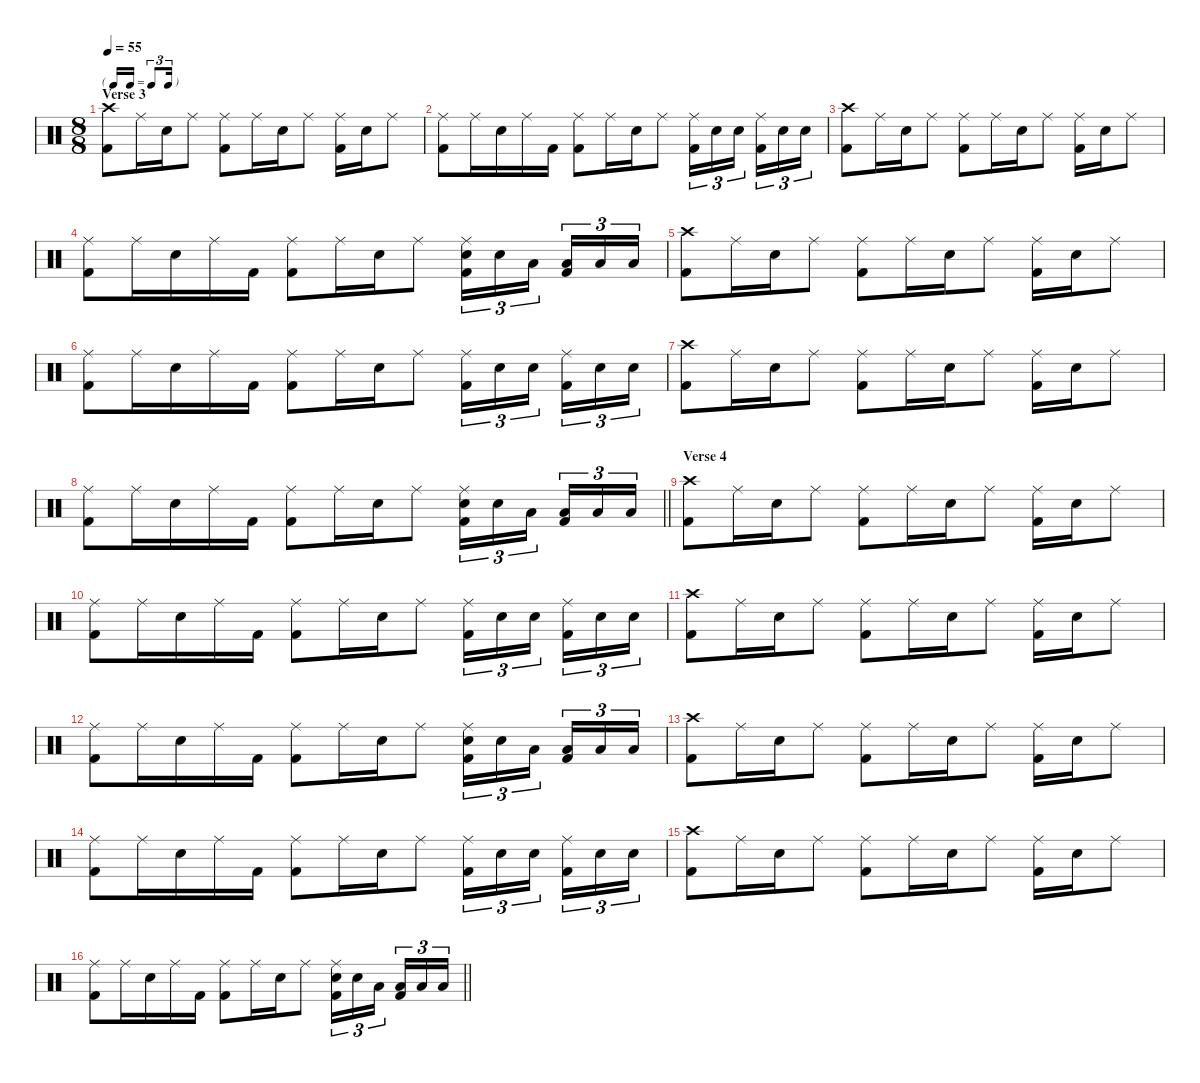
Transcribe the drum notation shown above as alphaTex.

\defaultSystemsLayout 4
\hideDynamics
\bracketExtendMode nobrackets
\singleTrackTrackNamePolicy hidden
\multiTrackTrackNamePolicy hidden
\otherSystemsTrackNameOrientation horizontal
\track ("Phil Selway(drums)" "drm.") {instrument percussion}
\staff {score}
\articulation defaults
\ts (8 8)
\tf triplet16th
\section ("" "Verse 3")
\tempo 55
\clef neutral
\ks c
("Crash high (hit)" "Kick (hit) 2").8{dy f beam Down} "Ride (middle)".16{beam Down} "Snare (hit) 2".16{beam Down} "Ride (middle)".8{beam Down} ("Ride (middle)" "Kick (hit) 2").8{beam Down} "Ride (middle)".16{beam Down} "Snare (hit) 2".16{beam Down} "Ride (middle)".8{beam Down} ("Ride (middle)" "Kick (hit) 2").16{beam Down} "Snare (hit) 2".16{beam Down} "Ride (middle)".8{beam Down} |
("Ride (middle)" "Kick (hit) 2").8{beam Down} "Ride (middle)".16{beam Down} "Snare (hit) 2".16{beam Down} "Ride (middle)".16{beam Down} "Kick (hit) 2".16{beam Down} ("Ride (middle)" "Kick (hit) 2").8{beam Down} "Ride (middle)".16{beam Down} "Snare (hit) 2".16{beam Down} "Ride (middle)".8{beam Down} ("Ride (middle)" "Kick (hit) 2").16{tu (3 2) beam Down} "Snare (hit) 2".16{tu (3 2) beam Down} "Snare (hit) 2".16{tu (3 2) beam Down} ("Ride (middle)" "Kick (hit) 2").16{tu (3 2) beam Down} "Snare (hit) 2".16{tu (3 2) beam Down} "Snare (hit) 2".16{tu (3 2) beam Down} |
("Crash high (hit)" "Kick (hit) 2").8{beam Down} "Ride (middle)".16{beam Down} "Snare (hit) 2".16{beam Down} "Ride (middle)".8{beam Down} ("Ride (middle)" "Kick (hit) 2").8{beam Down} "Ride (middle)".16{beam Down} "Snare (hit) 2".16{beam Down} "Ride (middle)".8{beam Down} ("Ride (middle)" "Kick (hit) 2").16{beam Down} "Snare (hit) 2".16{beam Down} "Ride (middle)".8{beam Down} |
("Ride (middle)" "Kick (hit) 2").8{beam Down} "Ride (middle)".16{beam Down} "Snare (hit) 2".16{beam Down} "Ride (middle)".16{beam Down} "Kick (hit) 2".16{beam Down} ("Ride (middle)" "Kick (hit) 2").8{beam Down} "Ride (middle)".16{beam Down} "Snare (hit) 2".16{beam Down} "Ride (middle)".8{beam Down} ("Ride (middle)" "Snare (hit) 2" "Kick (hit) 2").16{tu (3 2) beam Down} "Snare (hit) 2".16{tu (3 2) beam Down} "Low Tom (hit)".16{tu (3 2) beam Down} ("Low Tom (hit)" "Kick (hit) 2").16{tu (3 2) beam Up} "Low Floor Tom (hit)".16{tu (3 2) beam Up} "Low Floor Tom (hit)".16{tu (3 2) beam Up} |
("Crash high (hit)" "Kick (hit) 2").8{beam Down} "Ride (middle)".16{beam Down} "Snare (hit) 2".16{beam Down} "Ride (middle)".8{beam Down} ("Ride (middle)" "Kick (hit) 2").8{beam Down} "Ride (middle)".16{beam Down} "Snare (hit) 2".16{beam Down} "Ride (middle)".8{beam Down} ("Ride (middle)" "Kick (hit) 2").16{beam Down} "Snare (hit) 2".16{beam Down} "Ride (middle)".8{beam Down} |
("Ride (middle)" "Kick (hit) 2").8{beam Down} "Ride (middle)".16{beam Down} "Snare (hit) 2".16{beam Down} "Ride (middle)".16{beam Down} "Kick (hit) 2".16{beam Down} ("Ride (middle)" "Kick (hit) 2").8{beam Down} "Ride (middle)".16{beam Down} "Snare (hit) 2".16{beam Down} "Ride (middle)".8{beam Down} ("Ride (middle)" "Kick (hit) 2").16{tu (3 2) beam Down} "Snare (hit) 2".16{tu (3 2) beam Down} "Snare (hit) 2".16{tu (3 2) beam Down} ("Ride (middle)" "Kick (hit) 2").16{tu (3 2) beam Down} "Snare (hit) 2".16{tu (3 2) beam Down} "Snare (hit) 2".16{tu (3 2) beam Down} |
("Crash high (hit)" "Kick (hit) 2").8{beam Down} "Ride (middle)".16{beam Down} "Snare (hit) 2".16{beam Down} "Ride (middle)".8{beam Down} ("Ride (middle)" "Kick (hit) 2").8{beam Down} "Ride (middle)".16{beam Down} "Snare (hit) 2".16{beam Down} "Ride (middle)".8{beam Down} ("Ride (middle)" "Kick (hit) 2").16{beam Down} "Snare (hit) 2".16{beam Down} "Ride (middle)".8{beam Down} |
\barLineRight lightlight
("Ride (middle)" "Kick (hit) 2").8{beam Down} "Ride (middle)".16{beam Down} "Snare (hit) 2".16{beam Down} "Ride (middle)".16{beam Down} "Kick (hit) 2".16{beam Down} ("Ride (middle)" "Kick (hit) 2").8{beam Down} "Ride (middle)".16{beam Down} "Snare (hit) 2".16{beam Down} "Ride (middle)".8{beam Down} ("Ride (middle)" "Snare (hit) 2" "Kick (hit) 2").16{tu (3 2) beam Down} "Snare (hit) 2".16{tu (3 2) beam Down} "Low Tom (hit)".16{tu (3 2) beam Down} ("Low Tom (hit)" "Kick (hit) 2").16{tu (3 2) beam Up} "Low Floor Tom (hit)".16{tu (3 2) beam Up} "Low Floor Tom (hit)".16{tu (3 2) beam Up} |
\section ("" "Verse 4")
("Crash high (hit)" "Kick (hit) 2").8{beam Down} "Ride (middle)".16{beam Down} "Snare (hit) 2".16{beam Down} "Ride (middle)".8{beam Down} ("Ride (middle)" "Kick (hit) 2").8{beam Down} "Ride (middle)".16{beam Down} "Snare (hit) 2".16{beam Down} "Ride (middle)".8{beam Down} ("Ride (middle)" "Kick (hit) 2").16{beam Down} "Snare (hit) 2".16{beam Down} "Ride (middle)".8{beam Down} |
("Ride (middle)" "Kick (hit) 2").8{beam Down} "Ride (middle)".16{beam Down} "Snare (hit) 2".16{beam Down} "Ride (middle)".16{beam Down} "Kick (hit) 2".16{beam Down} ("Ride (middle)" "Kick (hit) 2").8{beam Down} "Ride (middle)".16{beam Down} "Snare (hit) 2".16{beam Down} "Ride (middle)".8{beam Down} ("Ride (middle)" "Kick (hit) 2").16{tu (3 2) beam Down} "Snare (hit) 2".16{tu (3 2) beam Down} "Snare (hit) 2".16{tu (3 2) beam Down} ("Ride (middle)" "Kick (hit) 2").16{tu (3 2) beam Down} "Snare (hit) 2".16{tu (3 2) beam Down} "Snare (hit) 2".16{tu (3 2) beam Down} |
("Crash high (hit)" "Kick (hit) 2").8{beam Down} "Ride (middle)".16{beam Down} "Snare (hit) 2".16{beam Down} "Ride (middle)".8{beam Down} ("Ride (middle)" "Kick (hit) 2").8{beam Down} "Ride (middle)".16{beam Down} "Snare (hit) 2".16{beam Down} "Ride (middle)".8{beam Down} ("Ride (middle)" "Kick (hit) 2").16{beam Down} "Snare (hit) 2".16{beam Down} "Ride (middle)".8{beam Down} |
("Ride (middle)" "Kick (hit) 2").8{beam Down} "Ride (middle)".16{beam Down} "Snare (hit) 2".16{beam Down} "Ride (middle)".16{beam Down} "Kick (hit) 2".16{beam Down} ("Ride (middle)" "Kick (hit) 2").8{beam Down} "Ride (middle)".16{beam Down} "Snare (hit) 2".16{beam Down} "Ride (middle)".8{beam Down} ("Ride (middle)" "Snare (hit) 2" "Kick (hit) 2").16{tu (3 2) beam Down} "Snare (hit) 2".16{tu (3 2) beam Down} "Low Tom (hit)".16{tu (3 2) beam Down} ("Low Tom (hit)" "Kick (hit) 2").16{tu (3 2) beam Up} "Low Floor Tom (hit)".16{tu (3 2) beam Up} "Low Floor Tom (hit)".16{tu (3 2) beam Up} |
("Crash high (hit)" "Kick (hit) 2").8{beam Down} "Ride (middle)".16{beam Down} "Snare (hit) 2".16{beam Down} "Ride (middle)".8{beam Down} ("Ride (middle)" "Kick (hit) 2").8{beam Down} "Ride (middle)".16{beam Down} "Snare (hit) 2".16{beam Down} "Ride (middle)".8{beam Down} ("Ride (middle)" "Kick (hit) 2").16{beam Down} "Snare (hit) 2".16{beam Down} "Ride (middle)".8{beam Down} |
("Ride (middle)" "Kick (hit) 2").8{beam Down} "Ride (middle)".16{beam Down} "Snare (hit) 2".16{beam Down} "Ride (middle)".16{beam Down} "Kick (hit) 2".16{beam Down} ("Ride (middle)" "Kick (hit) 2").8{beam Down} "Ride (middle)".16{beam Down} "Snare (hit) 2".16{beam Down} "Ride (middle)".8{beam Down} ("Ride (middle)" "Kick (hit) 2").16{tu (3 2) beam Down} "Snare (hit) 2".16{tu (3 2) beam Down} "Snare (hit) 2".16{tu (3 2) beam Down} ("Ride (middle)" "Kick (hit) 2").16{tu (3 2) beam Down} "Snare (hit) 2".16{tu (3 2) beam Down} "Snare (hit) 2".16{tu (3 2) beam Down} |
("Crash high (hit)" "Kick (hit) 2").8{beam Down} "Ride (middle)".16{beam Down} "Snare (hit) 2".16{beam Down} "Ride (middle)".8{beam Down} ("Ride (middle)" "Kick (hit) 2").8{beam Down} "Ride (middle)".16{beam Down} "Snare (hit) 2".16{beam Down} "Ride (middle)".8{beam Down} ("Ride (middle)" "Kick (hit) 2").16{beam Down} "Snare (hit) 2".16{beam Down} "Ride (middle)".8{beam Down} |
\barLineRight lightlight
("Ride (middle)" "Kick (hit) 2").8{beam Down} "Ride (middle)".16{beam Down} "Snare (hit) 2".16{beam Down} "Ride (middle)".16{beam Down} "Kick (hit) 2".16{beam Down} ("Ride (middle)" "Kick (hit) 2").8{beam Down} "Ride (middle)".16{beam Down} "Snare (hit) 2".16{beam Down} "Ride (middle)".8{beam Down} ("Ride (middle)" "Snare (hit) 2" "Kick (hit) 2").16{tu (3 2) beam Down} "Snare (hit) 2".16{tu (3 2) beam Down} "Low Tom (hit)".16{tu (3 2) beam Down} ("Low Tom (hit)" "Kick (hit) 2").16{tu (3 2) beam Up} "Low Floor Tom (hit)".16{tu (3 2) beam Up} "Low Floor Tom (hit)".16{tu (3 2) beam Up}
